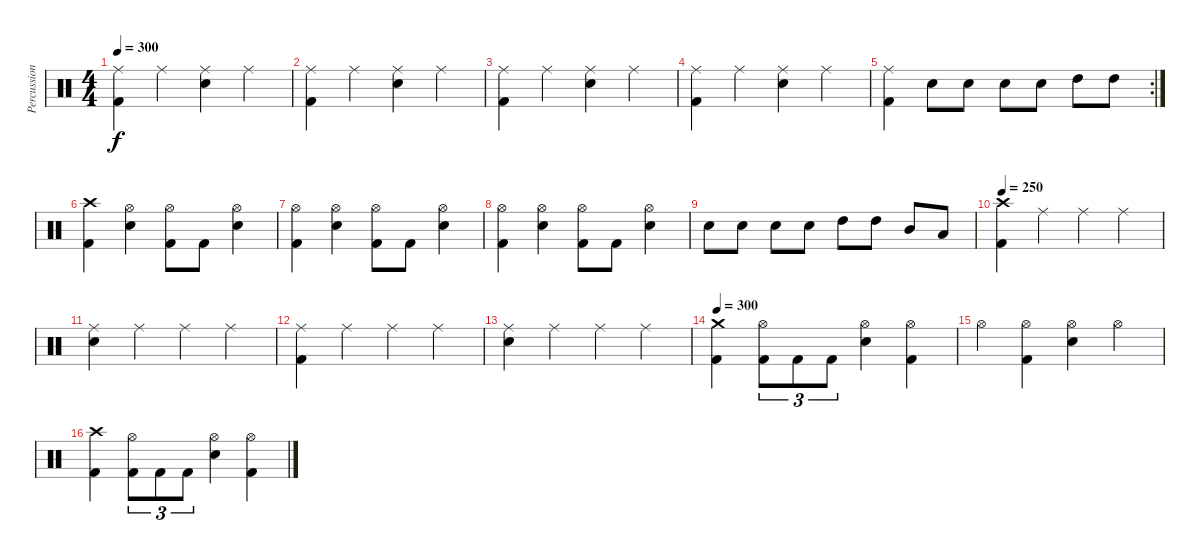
\track ("Percussion" "Percussion") {instrument percussion}
\staff {score}
\articulation defaults
\ts (4 4)
\tempo 300
\clef neutral
\ks c
("Ride (middle)" "Kick (hit) 2").4{dy f} "Ride (middle)".4 ("Ride (middle)" "Snare (hit) 2").4 "Ride (middle)".4 |
("Ride (middle)" "Kick (hit) 2").4 "Ride (middle)".4 ("Ride (middle)" "Snare (hit) 2").4 "Ride (middle)".4 |
("Ride (middle)" "Kick (hit) 2").4 "Ride (middle)".4 ("Ride (middle)" "Snare (hit) 2").4 "Ride (middle)".4 |
("Ride (middle)" "Kick (hit) 2").4 "Ride (middle)".4 ("Ride (middle)" "Snare (hit) 2").4 "Ride (middle)".4 |
\rc 2
("Ride (middle)" "Kick (hit) 2").4 "Snare (hit) 2".8 "Snare (hit) 2".8 "Snare (hit) 2".8 "Snare (hit) 2".8 "High Tom (hit)".8 "High Tom (hit)".8 |
("Crash high (hit)" "Kick (hit) 2").4 ("Hi-Hat (open)" "Snare (hit) 2").4 ("Hi-Hat (open)" "Kick (hit) 2").8 "Kick (hit) 2".8 ("Hi-Hat (open)" "Snare (hit) 2").4 |
("Hi-Hat (open)" "Kick (hit) 2").4 ("Hi-Hat (open)" "Snare (hit) 2").4 ("Hi-Hat (open)" "Kick (hit) 2").8 "Kick (hit) 2".8 ("Hi-Hat (open)" "Snare (hit) 2").4 |
("Hi-Hat (open)" "Kick (hit) 2").4 ("Hi-Hat (open)" "Snare (hit) 2").4 ("Hi-Hat (open)" "Kick (hit) 2").8 "Kick (hit) 2".8 ("Hi-Hat (open)" "Snare (hit) 2").4 |
"Snare (hit) 2".8 "Snare (hit) 2".8 "Snare (hit) 2".8 "Snare (hit) 2".8 "High Tom (hit)".8 "High Tom (hit)".8 "Mid Tom (hit)".8 "Low Tom (hit)".8 |
\tempo 250
("Crash high (hit)" "Kick (hit) 2").4 "Ride (middle)".4 "Ride (middle)".4 "Ride (middle)".4 |
("Ride (middle)" "Snare (hit) 2").4 "Ride (middle)".4 "Ride (middle)".4 "Ride (middle)".4 |
("Ride (middle)" "Kick (hit) 2").4 "Ride (middle)".4 "Ride (middle)".4 "Ride (middle)".4 |
("Ride (middle)" "Snare (hit) 2").4 "Ride (middle)".4 "Ride (middle)".4 "Ride (middle)".4 |
\tempo 300
("Crash medium (hit)" "Kick (hit) 2").4 ("Hi-Hat (open)" "Kick (hit) 2").8{tu (3 2)} "Kick (hit) 2".8{tu (3 2)} "Kick (hit) 2".8{tu (3 2)} ("Hi-Hat (open)" "Snare (hit) 2").4 ("Hi-Hat (open)" "Kick (hit) 2").4 |
"Hi-Hat (open)".4 ("Hi-Hat (open)" "Kick (hit) 2").4 ("Hi-Hat (open)" "Snare (hit) 2").4 "Hi-Hat (open)".4 |
("Crash high (hit)" "Kick (hit) 2").4 ("Hi-Hat (open)" "Kick (hit) 2").8{tu (3 2)} "Kick (hit) 2".8{tu (3 2)} "Kick (hit) 2".8{tu (3 2)} ("Hi-Hat (open)" "Snare (hit) 2").4 ("Hi-Hat (open)" "Kick (hit) 2").4
